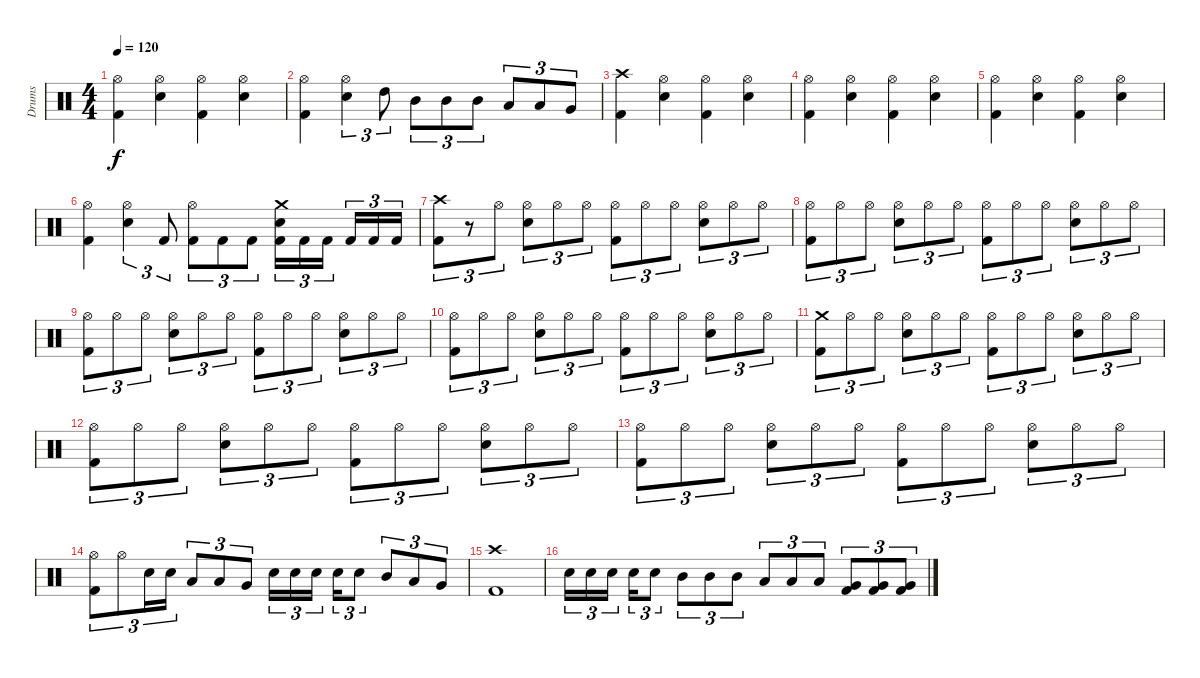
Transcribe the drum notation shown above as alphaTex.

\track ("Drums" "Drums") {instrument percussion}
\staff {score}
\articulation defaults
\ts (4 4)
\tempo 120
\clef neutral
\ks c
("Kick (hit) 2" "Hi-Hat (open)").4{dy f} ("Electric Snare (hit)" "Hi-Hat (open)").4 ("Kick (hit) 2" "Hi-Hat (open)").4 ("Electric Snare (hit)" "Hi-Hat (open)").4 |
("Kick (hit) 2" "Hi-Hat (open)").4 ("Electric Snare (hit)" "Hi-Hat (open)").4{tu (3 2)} "High Tom (hit)".8{tu (3 2)} "Mid Tom (hit)".8{tu (3 2)} "Mid Tom (hit)".8{tu (3 2)} "Mid Tom (hit)".8{tu (3 2)} "Low Tom (hit)".8{tu (3 2)} "Low Tom (hit)".8{tu (3 2)} "Very Low Tom (hit)".8{tu (3 2)} |
("Kick (hit) 2" "Crash high (hit)").4 ("Electric Snare (hit)" "Hi-Hat (open)").4 ("Kick (hit) 2" "Hi-Hat (open)").4 ("Electric Snare (hit)" "Hi-Hat (open)").4 |
("Kick (hit) 2" "Hi-Hat (open)").4 ("Electric Snare (hit)" "Hi-Hat (open)").4 ("Kick (hit) 2" "Hi-Hat (open)").4 ("Electric Snare (hit)" "Hi-Hat (open)").4 |
("Kick (hit) 2" "Hi-Hat (open)").4 ("Electric Snare (hit)" "Hi-Hat (open)").4 ("Kick (hit) 2" "Hi-Hat (open)").4 ("Electric Snare (hit)" "Hi-Hat (open)").4 |
("Kick (hit) 2" "Hi-Hat (open)").4 ("Electric Snare (hit)" "Hi-Hat (open)").4{tu (3 2)} "Kick (hit) 2".8{tu (3 2)} ("Kick (hit) 2" "Hi-Hat (open)").8{tu (3 2)} "Kick (hit) 2".8{tu (3 2)} "Kick (hit) 2".8{tu (3 2)} ("Kick (hit) 2" "Electric Snare (hit)" "Crash medium (hit)").16{tu (3 2)} "Kick (hit) 2".16{tu (3 2)} "Kick (hit) 2".16{tu (3 2)} "Kick (hit) 2".16{tu (3 2)} "Kick (hit) 2".16{tu (3 2)} "Kick (hit) 2".16{tu (3 2)} |
("Kick (hit) 2" "Crash high (hit)").8{tu (3 2)} r.8{tu (3 2)} "Hi-Hat (open)".8{tu (3 2)} ("Electric Snare (hit)" "Hi-Hat (open)").8{tu (3 2)} "Hi-Hat (open)".8{tu (3 2)} "Hi-Hat (open)".8{tu (3 2)} ("Kick (hit) 2" "Hi-Hat (open)").8{tu (3 2)} "Hi-Hat (open)".8{tu (3 2)} "Hi-Hat (open)".8{tu (3 2)} ("Electric Snare (hit)" "Hi-Hat (open)").8{tu (3 2)} "Hi-Hat (open)".8{tu (3 2)} "Hi-Hat (open)".8{tu (3 2)} |
("Kick (hit) 2" "Hi-Hat (open)").8{tu (3 2)} "Hi-Hat (open)".8{tu (3 2)} "Hi-Hat (open)".8{tu (3 2)} ("Electric Snare (hit)" "Hi-Hat (open)").8{tu (3 2)} "Hi-Hat (open)".8{tu (3 2)} "Hi-Hat (open)".8{tu (3 2)} ("Kick (hit) 2" "Hi-Hat (open)").8{tu (3 2)} "Hi-Hat (open)".8{tu (3 2)} "Hi-Hat (open)".8{tu (3 2)} ("Electric Snare (hit)" "Hi-Hat (open)").8{tu (3 2)} "Hi-Hat (open)".8{tu (3 2)} "Hi-Hat (open)".8{tu (3 2)} |
("Kick (hit) 2" "Hi-Hat (open)").8{tu (3 2)} "Hi-Hat (open)".8{tu (3 2)} "Hi-Hat (open)".8{tu (3 2)} ("Electric Snare (hit)" "Hi-Hat (open)").8{tu (3 2)} "Hi-Hat (open)".8{tu (3 2)} "Hi-Hat (open)".8{tu (3 2)} ("Kick (hit) 2" "Hi-Hat (open)").8{tu (3 2)} "Hi-Hat (open)".8{tu (3 2)} "Hi-Hat (open)".8{tu (3 2)} ("Electric Snare (hit)" "Hi-Hat (open)").8{tu (3 2)} "Hi-Hat (open)".8{tu (3 2)} "Hi-Hat (open)".8{tu (3 2)} |
("Kick (hit) 2" "Hi-Hat (open)").8{tu (3 2)} "Hi-Hat (open)".8{tu (3 2)} "Hi-Hat (open)".8{tu (3 2)} ("Electric Snare (hit)" "Hi-Hat (open)").8{tu (3 2)} "Hi-Hat (open)".8{tu (3 2)} "Hi-Hat (open)".8{tu (3 2)} ("Kick (hit) 2" "Hi-Hat (open)").8{tu (3 2)} "Hi-Hat (open)".8{tu (3 2)} "Hi-Hat (open)".8{tu (3 2)} ("Electric Snare (hit)" "Hi-Hat (open)").8{tu (3 2)} "Hi-Hat (open)".8{tu (3 2)} "Hi-Hat (open)".8{tu (3 2)} |
("Kick (hit) 2" "Crash medium (hit)").8{tu (3 2)} "Hi-Hat (open)".8{tu (3 2)} "Hi-Hat (open)".8{tu (3 2)} ("Electric Snare (hit)" "Hi-Hat (open)").8{tu (3 2)} "Hi-Hat (open)".8{tu (3 2)} "Hi-Hat (open)".8{tu (3 2)} ("Kick (hit) 2" "Hi-Hat (open)").8{tu (3 2)} "Hi-Hat (open)".8{tu (3 2)} "Hi-Hat (open)".8{tu (3 2)} ("Electric Snare (hit)" "Hi-Hat (open)").8{tu (3 2)} "Hi-Hat (open)".8{tu (3 2)} "Hi-Hat (open)".8{tu (3 2)} |
("Kick (hit) 2" "Hi-Hat (open)").8{tu (3 2)} "Hi-Hat (open)".8{tu (3 2)} "Hi-Hat (open)".8{tu (3 2)} ("Electric Snare (hit)" "Hi-Hat (open)").8{tu (3 2)} "Hi-Hat (open)".8{tu (3 2)} "Hi-Hat (open)".8{tu (3 2)} ("Kick (hit) 2" "Hi-Hat (open)").8{tu (3 2)} "Hi-Hat (open)".8{tu (3 2)} "Hi-Hat (open)".8{tu (3 2)} ("Electric Snare (hit)" "Hi-Hat (open)").8{tu (3 2)} "Hi-Hat (open)".8{tu (3 2)} "Hi-Hat (open)".8{tu (3 2)} |
("Kick (hit) 2" "Hi-Hat (open)").8{tu (3 2)} "Hi-Hat (open)".8{tu (3 2)} "Hi-Hat (open)".8{tu (3 2)} ("Electric Snare (hit)" "Hi-Hat (open)").8{tu (3 2)} "Hi-Hat (open)".8{tu (3 2)} "Hi-Hat (open)".8{tu (3 2)} ("Kick (hit) 2" "Hi-Hat (open)").8{tu (3 2)} "Hi-Hat (open)".8{tu (3 2)} "Hi-Hat (open)".8{tu (3 2)} ("Electric Snare (hit)" "Hi-Hat (open)").8{tu (3 2)} "Hi-Hat (open)".8{tu (3 2)} "Hi-Hat (open)".8{tu (3 2)} |
("Kick (hit) 2" "Hi-Hat (open)").8{tu (3 2)} "Hi-Hat (open)".8{tu (3 2)} "Electric Snare (hit)".16{tu (3 2)} "Electric Snare (hit)".16{tu (3 2)} "Low Tom (hit)".8{tu (3 2)} "Low Tom (hit)".8{tu (3 2)} "Very Low Tom (hit)".8{tu (3 2)} "Electric Snare (hit)".16{tu (3 2)} "Electric Snare (hit)".16{tu (3 2)} "Electric Snare (hit)".16{tu (3 2)} "Electric Snare (hit)".16{tu (3 2)} "Electric Snare (hit)".8{tu (3 2)} "Mid Tom (hit)".8{tu (3 2)} "Low Tom (hit)".8{tu (3 2)} "Very Low Tom (hit)".8{tu (3 2)} |
("Kick (hit) 2" "Crash high (hit)").1 |
"Electric Snare (hit)".16{tu (3 2)} "Electric Snare (hit)".16{tu (3 2)} "Electric Snare (hit)".16{tu (3 2)} "Electric Snare (hit)".16{tu (3 2)} "Electric Snare (hit)".8{tu (3 2)} "Mid Tom (hit)".8{tu (3 2)} "Mid Tom (hit)".8{tu (3 2)} "Mid Tom (hit)".8{tu (3 2)} "Low Tom (hit)".8{tu (3 2)} "Low Tom (hit)".8{tu (3 2)} "Low Tom (hit)".8{tu (3 2)} ("Kick (hit) 2" "Very Low Tom (hit)").8{tu (3 2)} ("Kick (hit) 2" "Very Low Tom (hit)").8{tu (3 2)} ("Kick (hit) 2" "Very Low Tom (hit)").8{tu (3 2)}
